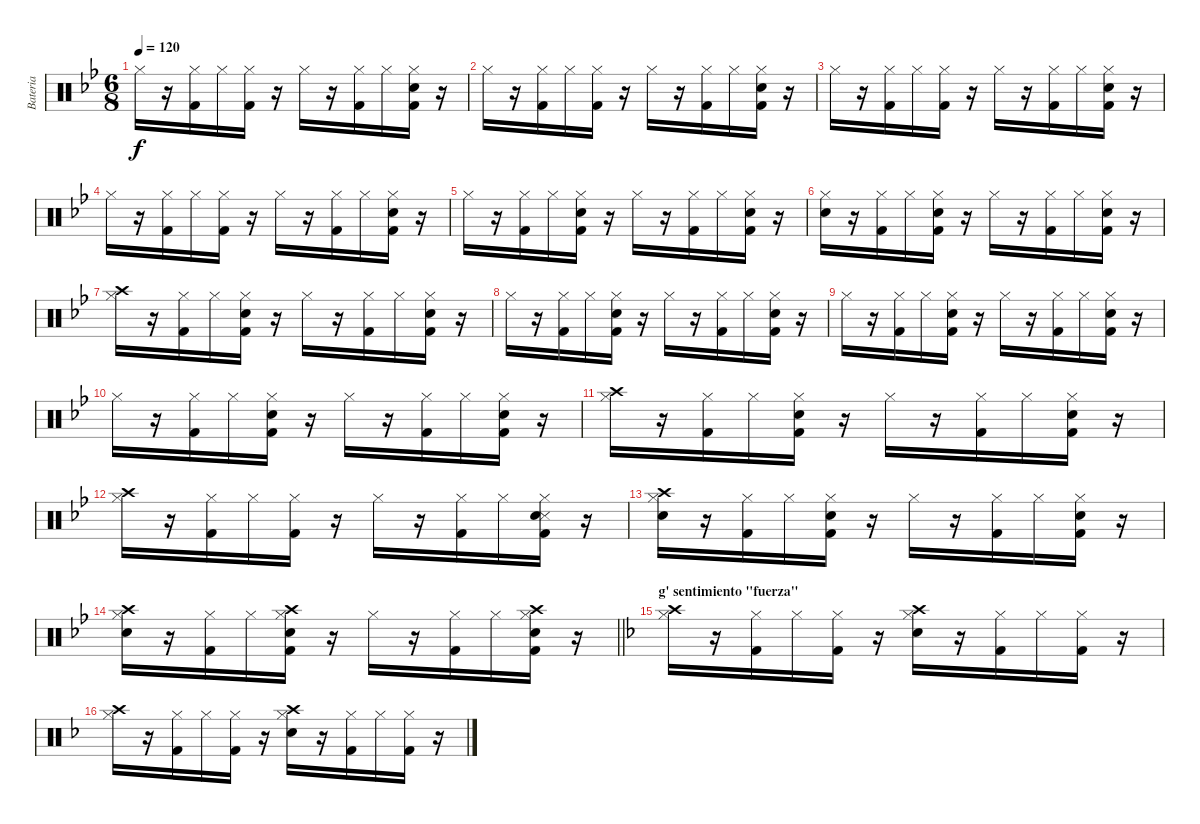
\track ("Bateria" "Bateria") {instrument percussion}
\staff {score}
\articulation defaults
\ts (6 8)
\tempo 120
\clef neutral
\ks bb "Hi-Hat (closed)".16{dy f}
r.16 ("Hi-Hat (closed)" "Kick (hit) 2").16 "Hi-Hat (closed)".16 ("Hi-Hat (closed)" "Kick (hit) 2").16 r.16 "Hi-Hat (closed)".16 r.16 ("Hi-Hat (closed)" "Kick (hit) 2").16 "Hi-Hat (closed)".16 ("Hi-Hat (closed)" "Kick (hit) 2" "Electric Snare (hit)").16 r.16 |
"Hi-Hat (closed)".16 r.16 ("Hi-Hat (closed)" "Kick (hit) 2").16 "Hi-Hat (closed)".16 ("Hi-Hat (closed)" "Kick (hit) 2").16 r.16 "Hi-Hat (closed)".16 r.16 ("Hi-Hat (closed)" "Kick (hit) 2").16 "Hi-Hat (closed)".16 ("Hi-Hat (closed)" "Kick (hit) 2" "Electric Snare (hit)").16 r.16 |
"Hi-Hat (closed)".16 r.16 ("Hi-Hat (closed)" "Kick (hit) 2").16 "Hi-Hat (closed)".16 ("Hi-Hat (closed)" "Kick (hit) 2").16 r.16 "Hi-Hat (closed)".16 r.16 ("Hi-Hat (closed)" "Kick (hit) 2").16 "Hi-Hat (closed)".16 ("Hi-Hat (closed)" "Kick (hit) 2" "Electric Snare (hit)").16 r.16 |
"Hi-Hat (closed)".16 r.16 ("Hi-Hat (closed)" "Kick (hit) 2").16 "Hi-Hat (closed)".16 ("Hi-Hat (closed)" "Kick (hit) 2").16 r.16 "Hi-Hat (closed)".16 r.16 ("Hi-Hat (closed)" "Kick (hit) 2").16 "Hi-Hat (closed)".16 ("Hi-Hat (closed)" "Kick (hit) 2" "Electric Snare (hit)").16 r.16 |
"Hi-Hat (closed)".16 r.16 ("Hi-Hat (closed)" "Kick (hit) 2").16 "Hi-Hat (closed)".16 ("Hi-Hat (closed)" "Kick (hit) 2" "Electric Snare (hit)").16 r.16 "Hi-Hat (closed)".16 r.16 ("Hi-Hat (closed)" "Kick (hit) 2").16 "Hi-Hat (closed)".16 ("Hi-Hat (closed)" "Kick (hit) 2" "Electric Snare (hit)").16 r.16 |
("Hi-Hat (closed)" "Electric Snare (hit)").16 r.16 ("Hi-Hat (closed)" "Kick (hit) 2").16 "Hi-Hat (closed)".16 ("Hi-Hat (closed)" "Kick (hit) 2" "Electric Snare (hit)").16 r.16 "Hi-Hat (closed)".16 r.16 ("Hi-Hat (closed)" "Kick (hit) 2").16 "Hi-Hat (closed)".16 ("Hi-Hat (closed)" "Kick (hit) 2" "Electric Snare (hit)").16 r.16 |
("Hi-Hat (closed)" "Crash high (hit)").16 r.16 ("Hi-Hat (closed)" "Kick (hit) 2").16 "Hi-Hat (closed)".16 ("Hi-Hat (closed)" "Kick (hit) 2" "Electric Snare (hit)").16 r.16 "Hi-Hat (closed)".16 r.16 ("Hi-Hat (closed)" "Kick (hit) 2").16 "Hi-Hat (closed)".16 ("Hi-Hat (closed)" "Kick (hit) 2" "Electric Snare (hit)").16 r.16 |
"Hi-Hat (closed)".16 r.16 ("Hi-Hat (closed)" "Kick (hit) 2").16 "Hi-Hat (closed)".16 ("Hi-Hat (closed)" "Kick (hit) 2" "Electric Snare (hit)").16 r.16 "Hi-Hat (closed)".16 r.16 ("Hi-Hat (closed)" "Kick (hit) 2").16 "Hi-Hat (closed)".16 ("Hi-Hat (closed)" "Kick (hit) 2" "Electric Snare (hit)").16 r.16 |
"Hi-Hat (closed)".16 r.16 ("Hi-Hat (closed)" "Kick (hit) 2").16 "Hi-Hat (closed)".16 ("Hi-Hat (closed)" "Kick (hit) 2" "Electric Snare (hit)").16 r.16 "Hi-Hat (closed)".16 r.16 ("Hi-Hat (closed)" "Kick (hit) 2").16 "Hi-Hat (closed)".16 ("Hi-Hat (closed)" "Kick (hit) 2" "Electric Snare (hit)").16 r.16 |
"Hi-Hat (closed)".16 r.16 ("Hi-Hat (closed)" "Kick (hit) 2").16 "Hi-Hat (closed)".16 ("Hi-Hat (closed)" "Kick (hit) 2" "Electric Snare (hit)").16 r.16 "Hi-Hat (closed)".16 r.16 ("Hi-Hat (closed)" "Kick (hit) 2").16 "Hi-Hat (closed)".16 ("Hi-Hat (closed)" "Kick (hit) 2" "Electric Snare (hit)").16 r.16 |
("Hi-Hat (closed)" "Crash high (hit)").16 r.16 ("Hi-Hat (closed)" "Kick (hit) 2").16 "Hi-Hat (closed)".16 ("Hi-Hat (closed)" "Kick (hit) 2" "Electric Snare (hit)").16 r.16 "Hi-Hat (closed)".16 r.16 ("Hi-Hat (closed)" "Kick (hit) 2").16 "Hi-Hat (closed)".16 ("Hi-Hat (closed)" "Kick (hit) 2" "Electric Snare (hit)").16 r.16 |
("Hi-Hat (closed)" "Crash high (hit)").16 r.16 ("Hi-Hat (closed)" "Kick (hit) 2").16 "Hi-Hat (closed)".16 ("Hi-Hat (closed)" "Kick (hit) 2").16 r.16 "Hi-Hat (closed)".16 r.16 ("Hi-Hat (closed)" "Kick (hit) 2").16 "Hi-Hat (closed)".16 ("Hi-Hat (closed)" "Kick (hit) 2" "Snare (side stick) 3" "Electric Snare (hit)").16 r.16 |
("Hi-Hat (closed)" "Electric Snare (hit)" "Crash high (hit)").16 r.16 ("Hi-Hat (closed)" "Kick (hit) 2").16 "Hi-Hat (closed)".16 ("Hi-Hat (closed)" "Kick (hit) 2" "Electric Snare (hit)").16 r.16 "Hi-Hat (closed)".16 r.16 ("Hi-Hat (closed)" "Kick (hit) 2").16 "Hi-Hat (closed)".16 ("Hi-Hat (closed)" "Kick (hit) 2" "Electric Snare (hit)").16 r.16 |
\barLineRight lightlight
("Hi-Hat (closed)" "Electric Snare (hit)" "Crash high (hit)").16 r.16 ("Hi-Hat (closed)" "Kick (hit) 2").16 "Hi-Hat (closed)".16 ("Hi-Hat (closed)" "Kick (hit) 2" "Electric Snare (hit)" "Crash high (hit)").16 r.16 "Hi-Hat (closed)".16 r.16 ("Hi-Hat (closed)" "Kick (hit) 2").16 "Hi-Hat (closed)".16 ("Hi-Hat (closed)" "Kick (hit) 2" "Electric Snare (hit)" "Crash high (hit)").16 r.16 |
\section ("" "g' sentimiento \"fuerza\"")
\ks f
("Hi-Hat (closed)" "Crash high (hit)").16 r.16 ("Hi-Hat (closed)" "Kick (hit) 2").16 "Hi-Hat (closed)".16 ("Hi-Hat (closed)" "Kick (hit) 2").16 r.16 ("Hi-Hat (closed)" "Electric Snare (hit)" "Crash high (hit)").16 r.16 ("Hi-Hat (closed)" "Kick (hit) 2").16 "Hi-Hat (closed)".16 ("Hi-Hat (closed)" "Kick (hit) 2").16 r.16 |
("Hi-Hat (closed)" "Crash high (hit)").16 r.16 ("Hi-Hat (closed)" "Kick (hit) 2").16 "Hi-Hat (closed)".16 ("Hi-Hat (closed)" "Kick (hit) 2").16 r.16 ("Hi-Hat (closed)" "Electric Snare (hit)" "Crash high (hit)").16 r.16 ("Hi-Hat (closed)" "Kick (hit) 2").16 "Hi-Hat (closed)".16 ("Hi-Hat (closed)" "Kick (hit) 2").16 r.16
